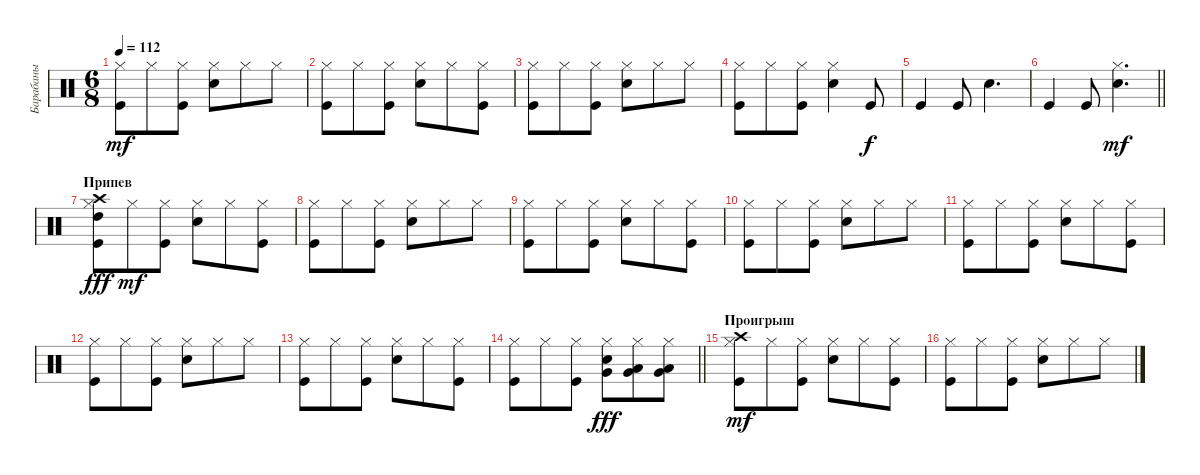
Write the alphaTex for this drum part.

\track ("Барабаны" "Барабаны") {instrument percussion}
\staff {score}
\articulation defaults
\ts (6 8)
\tempo 112
\clef neutral
\ks c
("Kick (hit)" "Hi-Hat (closed)").8{dy mf} "Hi-Hat (closed)".8 ("Kick (hit)" "Hi-Hat (closed)").8 ("Snare (hit) 2" "Hi-Hat (closed)").8 "Hi-Hat (closed)".8 "Hi-Hat (closed)".8 |
("Kick (hit)" "Hi-Hat (closed)").8 "Hi-Hat (closed)".8 ("Kick (hit)" "Hi-Hat (closed)").8 ("Snare (hit) 2" "Hi-Hat (closed)").8 "Hi-Hat (closed)".8 ("Kick (hit)" "Hi-Hat (closed)").8 |
("Kick (hit)" "Hi-Hat (closed)").8 "Hi-Hat (closed)".8 ("Kick (hit)" "Hi-Hat (closed)").8 ("Snare (hit) 2" "Hi-Hat (closed)").8 "Hi-Hat (closed)".8 "Hi-Hat (closed)".8 |
("Kick (hit)" "Hi-Hat (closed)").8 "Hi-Hat (closed)".8 ("Kick (hit)" "Hi-Hat (closed)").8 ("Snare (hit) 2" "Hi-Hat (closed)").4 "Kick (hit)".8{dy f} |
"Kick (hit)".4 "Kick (hit)".8 "Snare (hit) 2".4{d} |
\barLineRight lightlight "Kick (hit)".4 "Kick (hit)".8
("Snare (hit) 2" "Hi-Hat (closed)").4{d dy mf} |
\section ("" "Припев")
("Kick (hit)" "Hi-Hat (closed)" "Crash high (hit)" "High Tom (hit)").8{dy fff} "Hi-Hat (closed)".8{dy mf} ("Kick (hit)" "Hi-Hat (closed)").8 ("Snare (hit) 2" "Hi-Hat (closed)").8 "Hi-Hat (closed)".8 ("Kick (hit)" "Hi-Hat (closed)").8 |
("Kick (hit)" "Hi-Hat (closed)").8 "Hi-Hat (closed)".8 ("Kick (hit)" "Hi-Hat (closed)").8 ("Snare (hit) 2" "Hi-Hat (closed)").8 "Hi-Hat (closed)".8 "Hi-Hat (closed)".8 |
("Kick (hit)" "Hi-Hat (closed)").8 "Hi-Hat (closed)".8 ("Kick (hit)" "Hi-Hat (closed)").8 ("Snare (hit) 2" "Hi-Hat (closed)").8 "Hi-Hat (closed)".8 ("Kick (hit)" "Hi-Hat (closed)").8 |
("Kick (hit)" "Hi-Hat (closed)").8 "Hi-Hat (closed)".8 ("Kick (hit)" "Hi-Hat (closed)").8 ("Snare (hit) 2" "Hi-Hat (closed)").8 "Hi-Hat (closed)".8 "Hi-Hat (closed)".8 |
("Kick (hit)" "Hi-Hat (closed)").8 "Hi-Hat (closed)".8 ("Kick (hit)" "Hi-Hat (closed)").8 ("Snare (hit) 2" "Hi-Hat (closed)").8 "Hi-Hat (closed)".8 ("Kick (hit)" "Hi-Hat (closed)").8 |
("Kick (hit)" "Hi-Hat (closed)").8 "Hi-Hat (closed)".8 ("Kick (hit)" "Hi-Hat (closed)").8 ("Snare (hit) 2" "Hi-Hat (closed)").8 "Hi-Hat (closed)".8 "Hi-Hat (closed)".8 |
("Kick (hit)" "Hi-Hat (closed)").8 "Hi-Hat (closed)".8 ("Kick (hit)" "Hi-Hat (closed)").8 ("Snare (hit) 2" "Hi-Hat (closed)").8 "Hi-Hat (closed)".8 ("Kick (hit)" "Hi-Hat (closed)").8 |
\barLineRight lightlight
("Kick (hit)" "Hi-Hat (closed)").8 "Hi-Hat (closed)".8 ("Kick (hit)" "Hi-Hat (closed)").8 ("Snare (hit) 2" "Hi-Hat (closed)" "Very Low Tom (hit)").8{dy fff} ("Hi-Hat (closed)" "Low Tom (hit)" "Very Low Tom (hit)").8 ("Hi-Hat (closed)" "Low Tom (hit)" "Very Low Tom (hit)").8 |
\section ("" "Проигрыш")
("Kick (hit)" "Hi-Hat (closed)" "Crash high (hit)").8{dy mf} "Hi-Hat (closed)".8 ("Kick (hit)" "Hi-Hat (closed)").8 ("Snare (hit) 2" "Hi-Hat (closed)").8 "Hi-Hat (closed)".8 ("Kick (hit)" "Hi-Hat (closed)").8 |
("Kick (hit)" "Hi-Hat (closed)").8 "Hi-Hat (closed)".8 ("Kick (hit)" "Hi-Hat (closed)").8 ("Snare (hit) 2" "Hi-Hat (closed)").8 "Hi-Hat (closed)".8 "Hi-Hat (closed)".8
